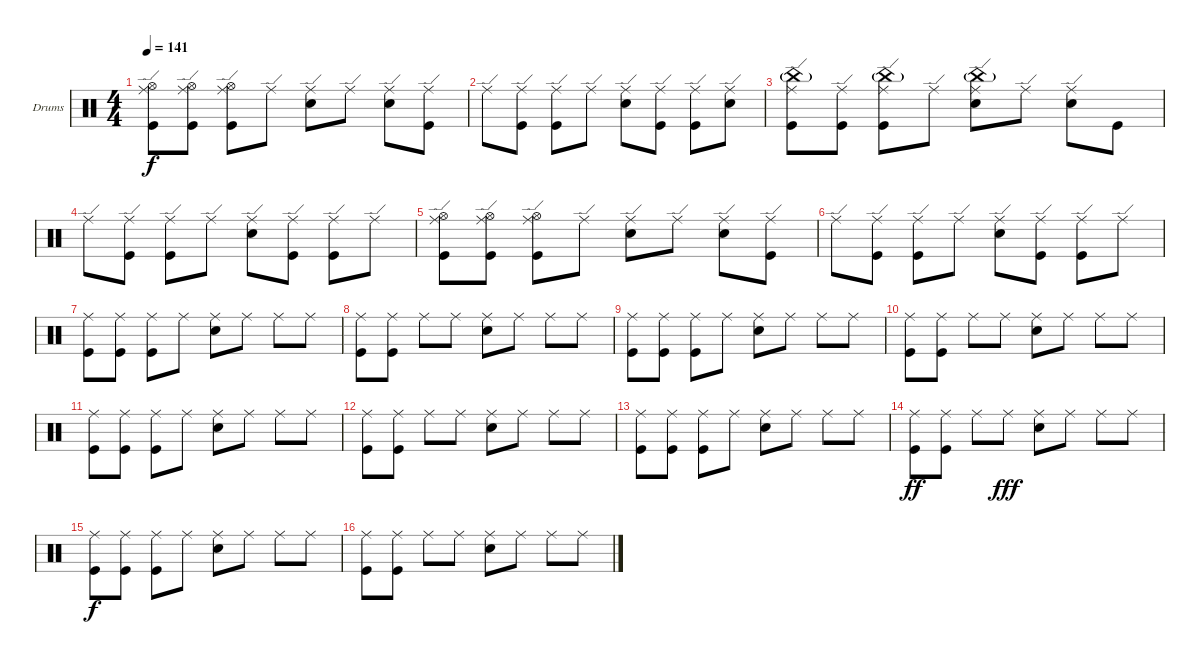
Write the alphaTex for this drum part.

\bracketExtendMode groupsimilarinstruments
\firstSystemTrackNameOrientation horizontal
\otherSystemsTrackNameOrientation horizontal
\track ("Drumkit" "Drums") {instrument percussion}
\staff {score}
\articulation defaults
\ts (4 4)
\tempo 141
\clef neutral
\ks c
("Hi-Hat (open)" "Kick (hit)" "Ride (edge)").8{dy f} ("Hi-Hat (open)" "Kick (hit)" "Ride (edge)").8 ("Hi-Hat (open)" "Kick (hit)" "Ride (edge)").8 "Ride (edge)".8 ("Ride (edge)" "Snare (hit) 2").8 "Ride (edge)".8 ("Ride (edge)" "Snare (hit) 2").8 ("Ride (edge)" "Kick (hit)").8 |
"Ride (edge)".8 ("Kick (hit)" "Ride (edge)").8 ("Ride (edge)" "Kick (hit)").8 "Ride (edge)".8 ("Ride (edge)" "Snare (hit) 2").8 ("Kick (hit)" "Ride (edge)").8 ("Ride (edge)" "Kick (hit)").8 ("Ride (edge)" "Snare (hit) 2").8 |
("Kick (hit)" "Ride (edge)" "China (hit)"{g}).8 ("Kick (hit)" "Ride (edge)").8 ("Kick (hit)" "Ride (edge)" "China (hit)"{g}).8 "Ride (edge)".8 ("Snare (hit) 2" "Ride (edge)" "China (hit)"{g}).8 "Ride (edge)".8 ("Ride (edge)" "Snare (hit) 2").8 "Kick (hit)".8 |
"Ride (edge)".8 ("Kick (hit)" "Ride (edge)").8 ("Ride (edge)" "Kick (hit)").8 "Ride (edge)".8 ("Ride (edge)" "Snare (hit) 2").8 ("Kick (hit)" "Ride (edge)").8 ("Ride (edge)" "Kick (hit)").8 "Ride (edge)".8 |
("Hi-Hat (open)" "Kick (hit)" "Ride (edge)").8 ("Hi-Hat (open)" "Kick (hit)" "Ride (edge)").8 ("Hi-Hat (open)" "Kick (hit)" "Ride (edge)").8 "Ride (edge)".8 ("Ride (edge)" "Snare (hit) 2").8 "Ride (edge)".8 ("Ride (edge)" "Snare (hit) 2").8 ("Ride (edge)" "Kick (hit)").8 |
"Ride (edge)".8 ("Kick (hit)" "Ride (edge)").8 ("Ride (edge)" "Kick (hit)").8 "Ride (edge)".8 ("Ride (edge)" "Snare (hit) 2").8 ("Kick (hit)" "Ride (edge)").8 ("Ride (edge)" "Kick (hit)").8 "Ride (edge)".8 |
("Ride (middle)" "Kick (hit)").8 ("Ride (middle)" "Kick (hit)").8 ("Ride (middle)" "Kick (hit)").8 "Ride (middle)".8 ("Ride (middle)" "Snare (hit) 2").8 "Ride (middle)".8 "Ride (middle)".8 "Ride (middle)".8 |
("Ride (middle)" "Kick (hit)").8 ("Ride (middle)" "Kick (hit)").8 "Ride (middle)".8 "Ride (middle)".8 ("Ride (middle)" "Snare (hit) 2").8 "Ride (middle)".8 "Ride (middle)".8 "Ride (middle)".8 |
("Ride (middle)" "Kick (hit)").8 ("Ride (middle)" "Kick (hit)").8 ("Ride (middle)" "Kick (hit)").8 "Ride (middle)".8 ("Ride (middle)" "Snare (hit) 2").8 "Ride (middle)".8 "Ride (middle)".8 "Ride (middle)".8 |
("Ride (middle)" "Kick (hit)").8 ("Ride (middle)" "Kick (hit)").8 "Ride (middle)".8 "Ride (middle)".8 ("Ride (middle)" "Snare (hit) 2").8 "Ride (middle)".8 "Ride (middle)".8 "Ride (middle)".8 |
("Ride (middle)" "Kick (hit)").8 ("Ride (middle)" "Kick (hit)").8 ("Ride (middle)" "Kick (hit)").8 "Ride (middle)".8 ("Ride (middle)" "Snare (hit) 2").8 "Ride (middle)".8 "Ride (middle)".8 "Ride (middle)".8 |
("Ride (middle)" "Kick (hit)").8 ("Ride (middle)" "Kick (hit)").8 "Ride (middle)".8 "Ride (middle)".8 ("Ride (middle)" "Snare (hit) 2").8 "Ride (middle)".8 "Ride (middle)".8 "Ride (middle)".8 |
("Ride (middle)" "Kick (hit)").8 ("Ride (middle)" "Kick (hit)").8 ("Ride (middle)" "Kick (hit)").8 "Ride (middle)".8 ("Ride (middle)" "Snare (hit) 2").8 "Ride (middle)".8 "Ride (middle)".8 "Ride (middle)".8 |
("Ride (middle)" "Kick (hit)").8{dy ff} ("Ride (middle)" "Kick (hit)").8 "Ride (middle)".8 "Ride (middle)".8{dy fff} ("Ride (middle)" "Snare (hit) 2").8 "Ride (middle)".8 "Ride (middle)".8 "Ride (middle)".8 |
("Ride (middle)" "Kick (hit)").8{dy f} ("Ride (middle)" "Kick (hit)").8 ("Ride (middle)" "Kick (hit)").8 "Ride (middle)".8 ("Ride (middle)" "Snare (hit) 2").8 "Ride (middle)".8 "Ride (middle)".8 "Ride (middle)".8 |
("Ride (middle)" "Kick (hit)").8 ("Ride (middle)" "Kick (hit)").8 "Ride (middle)".8 "Ride (middle)".8 ("Ride (middle)" "Snare (hit) 2").8 "Ride (middle)".8 "Ride (middle)".8 "Ride (middle)".8
